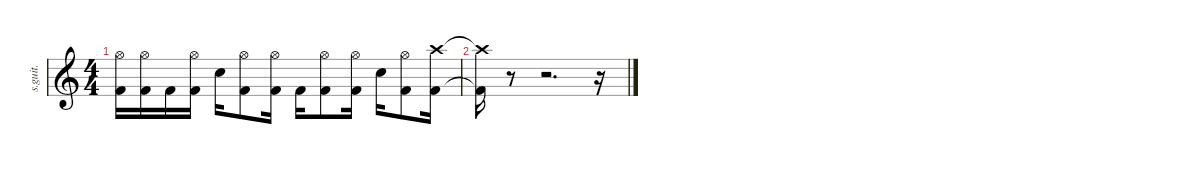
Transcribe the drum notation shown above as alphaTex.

\defaultSystemsLayout 4
\hideDynamics
\bracketExtendMode nobrackets
\track ("Tomas Haake" "s.guit.") {instrument percussion}
\staff {score}
\articulation defaults
\ts (4 4)
\tempo (110 hide)
\clef g2
\ks c
("Hi-Hat (open)"{t} "Kick (hit) 2"{t}).16{lyrics (0 "") lyrics (1 "") lyrics (2 "") lyrics (3 "") lyrics (4 "") dy f} ("Hi-Hat (open)" "Kick (hit) 2").16{lyrics (0 "") lyrics (1 "") lyrics (2 "") lyrics (3 "") lyrics (4 "")} "Kick (hit) 2".16{lyrics (0 "") lyrics (1 "") lyrics (2 "") lyrics (3 "") lyrics (4 "")} ("Hi-Hat (open)" "Kick (hit) 2").16{lyrics (0 "") lyrics (1 "") lyrics (2 "") lyrics (3 "") lyrics (4 "")} "Snare (hit) 2".16{lyrics (0 "") lyrics (1 "") lyrics (2 "") lyrics (3 "") lyrics (4 "")} ("Hi-Hat (open)" "Kick (hit) 2").8{lyrics (0 "") lyrics (1 "") lyrics (2 "") lyrics (3 "") lyrics (4 "")} ("Hi-Hat (open)" "Kick (hit) 2").16{lyrics (0 "") lyrics (1 "") lyrics (2 "") lyrics (3 "") lyrics (4 "")} "Kick (hit) 2".16{lyrics (0 "") lyrics (1 "") lyrics (2 "") lyrics (3 "") lyrics (4 "")} ("Hi-Hat (open)" "Kick (hit) 2").8{lyrics (0 "") lyrics (1 "") lyrics (2 "") lyrics (3 "") lyrics (4 "")} ("Hi-Hat (open)" "Kick (hit) 2").16{lyrics (0 "") lyrics (1 "") lyrics (2 "") lyrics (3 "") lyrics (4 "")} "Snare (hit) 2".16{lyrics (0 "") lyrics (1 "") lyrics (2 "") lyrics (3 "") lyrics (4 "")} ("Hi-Hat (open)" "Kick (hit) 2").8{lyrics (0 "") lyrics (1 "") lyrics (2 "") lyrics (3 "") lyrics (4 "")} ("Crash high (hit)" "Kick (hit) 2").16{lyrics (0 "") lyrics (1 "") lyrics (2 "") lyrics (3 "") lyrics (4 "")} |
("Crash high (hit)"{t} "Kick (hit) 2"{t}).16{lyrics (0 "") lyrics (1 "") lyrics (2 "") lyrics (3 "") lyrics (4 "")} r.8 r.2{d} r.16
